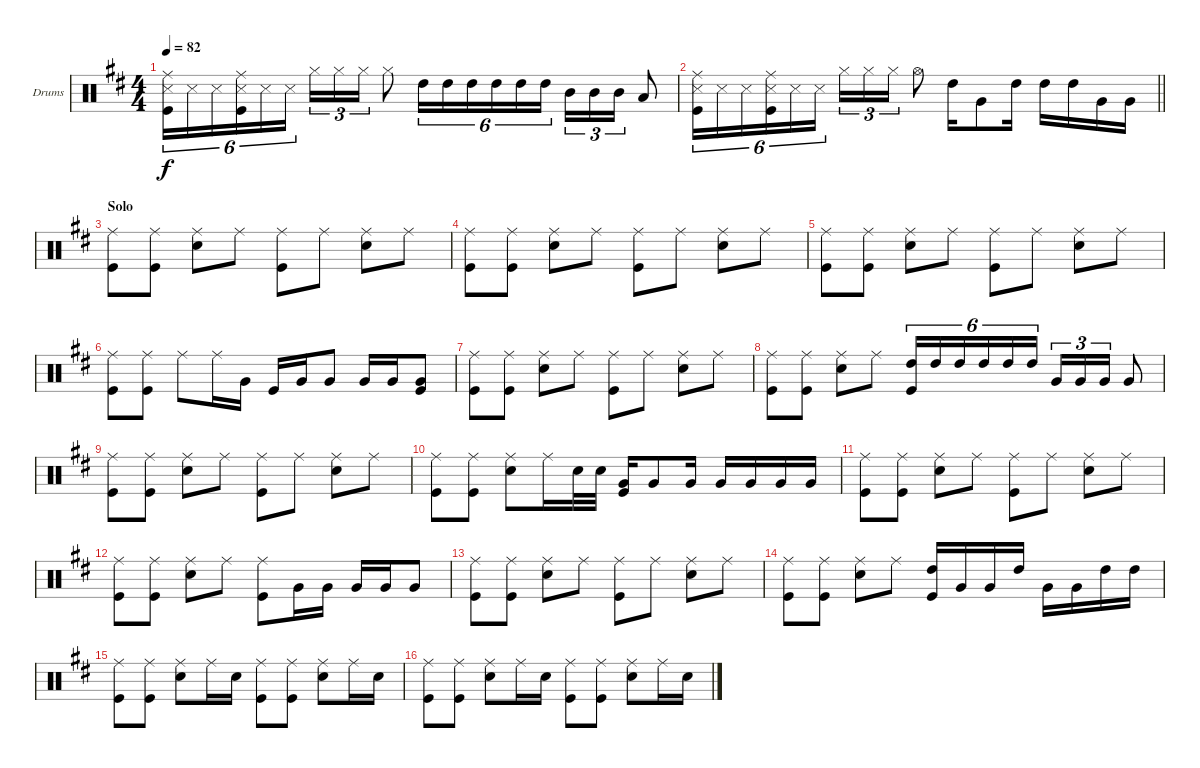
\bracketExtendMode groupsimilarinstruments
\firstSystemTrackNameOrientation horizontal
\otherSystemsTrackNameOrientation horizontal
\track ("Drumkit" "Drums") {instrument percussion}
\staff {score}
\articulation defaults
\ts (4 4)
\tempo 82
\clef neutral
\ks d
("Snare (side stick) 3" "Kick (hit)" "Ride (middle)").16{tu (6 4) dy f} "Snare (side stick) 3".16{tu (6 4)} "Snare (side stick) 3".16{tu (6 4)} ("Snare (side stick) 3" "Kick (hit)" "Ride (middle)").16{tu (6 4)} "Snare (side stick) 3".16{tu (6 4)} "Snare (side stick) 3".16{tu (6 4)} "Hi-Hat (closed)".16{tu (3 2)} "Hi-Hat (closed)".16{tu (3 2)} "Hi-Hat (closed)".16{tu (3 2)} "Hi-Hat (closed)".8 "High Tom (hit)".16{tu (6 4)} "High Tom (hit)".16{tu (6 4)} "High Tom (hit)".16{tu (6 4)} "High Tom (hit)".16{tu (6 4)} "High Tom (hit)".16{tu (6 4)} "High Tom (hit)".16{tu (6 4)} "Mid Tom (hit)".16{tu (3 2)} "Mid Tom (hit)".16{tu (3 2)} "Mid Tom (hit)".16{tu (3 2)} "Low Tom (hit)".8 |
\barLineRight lightlight
("Snare (side stick) 3" "Kick (hit)" "Ride (middle)").16{tu (6 4)} "Snare (side stick) 3".16{tu (6 4)} "Snare (side stick) 3".16{tu (6 4)} ("Snare (side stick) 3" "Kick (hit)" "Ride (middle)").16{tu (6 4)} "Snare (side stick) 3".16{tu (6 4)} "Snare (side stick) 3".16{tu (6 4)} "Hi-Hat (closed)".16{tu (3 2)} "Hi-Hat (closed)".16{tu (3 2)} "Hi-Hat (closed)".16{tu (3 2)} "Hi-Hat (open)".8 "High Tom (hit)".16 "Very Low Tom (hit)".8 "High Tom (hit)".16 "High Tom (hit)".16 "High Tom (hit)".16 "Very Low Tom (hit)".16 "Very Low Tom (hit)".16 |
\section ("" "Solo")
("Ride (middle)" "Kick (hit)").8 ("Ride (middle)" "Kick (hit)").8 ("Ride (middle)" "Snare (hit) 2").8 "Ride (middle)".8 ("Ride (middle)" "Kick (hit)").8 "Ride (middle)".8 ("Ride (middle)" "Snare (hit) 2").8 "Ride (middle)".8 |
("Ride (middle)" "Kick (hit)").8 ("Ride (middle)" "Kick (hit)").8 ("Ride (middle)" "Snare (hit) 2").8 "Ride (middle)".8 ("Ride (middle)" "Kick (hit)").8 "Ride (middle)".8 ("Ride (middle)" "Snare (hit) 2").8 "Ride (middle)".8 |
("Ride (middle)" "Kick (hit)").8 ("Ride (middle)" "Kick (hit)").8 ("Ride (middle)" "Snare (hit) 2").8 "Ride (middle)".8 ("Ride (middle)" "Kick (hit)").8 "Ride (middle)".8 ("Ride (middle)" "Snare (hit) 2").8 "Ride (middle)".8 |
("Ride (middle)" "Kick (hit)").8 ("Ride (middle)" "Kick (hit)").8 "Ride (middle)".8 "Ride (middle)".16 "Very Low Tom (hit)".16 "Kick (hit)".16 "Very Low Tom (hit)".16 "Very Low Tom (hit)".8 "Very Low Tom (hit)".16 "Very Low Tom (hit)".16 ("Very Low Tom (hit)" "Kick (hit)").8 |
("Ride (middle)" "Kick (hit)").8 ("Ride (middle)" "Kick (hit)").8 ("Ride (middle)" "Snare (hit) 2").8 "Ride (middle)".8 ("Ride (middle)" "Kick (hit)").8 "Ride (middle)".8 ("Ride (middle)" "Snare (hit) 2").8 "Ride (middle)".8 |
("Ride (middle)" "Kick (hit)").8 ("Ride (middle)" "Kick (hit)").8 ("Ride (middle)" "Snare (hit) 2").8 "Ride (middle)".8 ("High Tom (hit)" "Kick (hit)").16{tu (6 4)} "High Tom (hit)".16{tu (6 4)} "High Tom (hit)".16{tu (6 4)} "High Tom (hit)".16{tu (6 4)} "High Tom (hit)".16{tu (6 4)} "High Tom (hit)".16{tu (6 4)} "Very Low Tom (hit)".16{tu (3 2)} "Very Low Tom (hit)".16{tu (3 2)} "Very Low Tom (hit)".16{tu (3 2)} "Very Low Tom (hit)".8 |
("Ride (middle)" "Kick (hit)").8 ("Ride (middle)" "Kick (hit)").8 ("Ride (middle)" "Snare (hit) 2").8 "Ride (middle)".8 ("Ride (middle)" "Kick (hit)").8 "Ride (middle)".8 ("Ride (middle)" "Snare (hit) 2").8 "Ride (middle)".8 |
("Ride (middle)" "Kick (hit)").8 ("Ride (middle)" "Kick (hit)").8 ("Ride (middle)" "Snare (hit) 2").8 "Ride (middle)".16 "Snare (hit) 2".32 "Snare (hit) 2".32 ("Very Low Tom (hit)" "Kick (hit)").16 "Very Low Tom (hit)".8 "Very Low Tom (hit)".16 "Very Low Tom (hit)".16 "Very Low Tom (hit)".16 "Very Low Tom (hit)".16 "Very Low Tom (hit)".16 |
("Ride (middle)" "Kick (hit)").8 ("Ride (middle)" "Kick (hit)").8 ("Ride (middle)" "Snare (hit) 2").8 "Ride (middle)".8 ("Ride (middle)" "Kick (hit)").8 "Ride (middle)".8 ("Ride (middle)" "Snare (hit) 2").8 "Ride (middle)".8 |
("Ride (middle)" "Kick (hit)").8 ("Ride (middle)" "Kick (hit)").8 ("Ride (middle)" "Snare (hit) 2").8 "Ride (middle)".8 ("Ride (middle)" "Kick (hit)").8 "Very Low Tom (hit)".16 "Very Low Tom (hit)".16 "Very Low Tom (hit)".16 "Very Low Tom (hit)".16 "Very Low Tom (hit)".8 |
("Ride (middle)" "Kick (hit)").8 ("Ride (middle)" "Kick (hit)").8 ("Ride (middle)" "Snare (hit) 2").8 "Ride (middle)".8 ("Ride (middle)" "Kick (hit)").8 "Ride (middle)".8 ("Ride (middle)" "Snare (hit) 2").8 "Ride (middle)".8 |
("Ride (middle)" "Kick (hit)").8 ("Ride (middle)" "Kick (hit)").8 ("Ride (middle)" "Snare (hit) 2").8 "Ride (middle)".8 ("High Tom (hit)" "Kick (hit)").16 "Very Low Tom (hit)".16 "Very Low Tom (hit)".16 "High Tom (hit)".16 "Very Low Tom (hit)".16 "Very Low Tom (hit)".16 "High Tom (hit)".16 "High Tom (hit)".16 |
("Ride (middle)" "Kick (hit)").8 ("Ride (middle)" "Kick (hit)").8 ("Ride (middle)" "Snare (hit) 2").8 "Ride (middle)".16 "Snare (hit) 2".16 ("Ride (middle)" "Kick (hit)").8 ("Ride (middle)" "Kick (hit)").8 ("Ride (middle)" "Snare (hit) 2").8 "Ride (middle)".16 "Snare (hit) 2".16 |
("Ride (middle)" "Kick (hit)").8 ("Ride (middle)" "Kick (hit)").8 ("Ride (middle)" "Snare (hit) 2").8 "Ride (middle)".16 "Snare (hit) 2".16 ("Ride (middle)" "Kick (hit)").8 ("Ride (middle)" "Kick (hit)").8 ("Ride (middle)" "Snare (hit) 2").8 "Ride (middle)".16 "Snare (hit) 2".16
